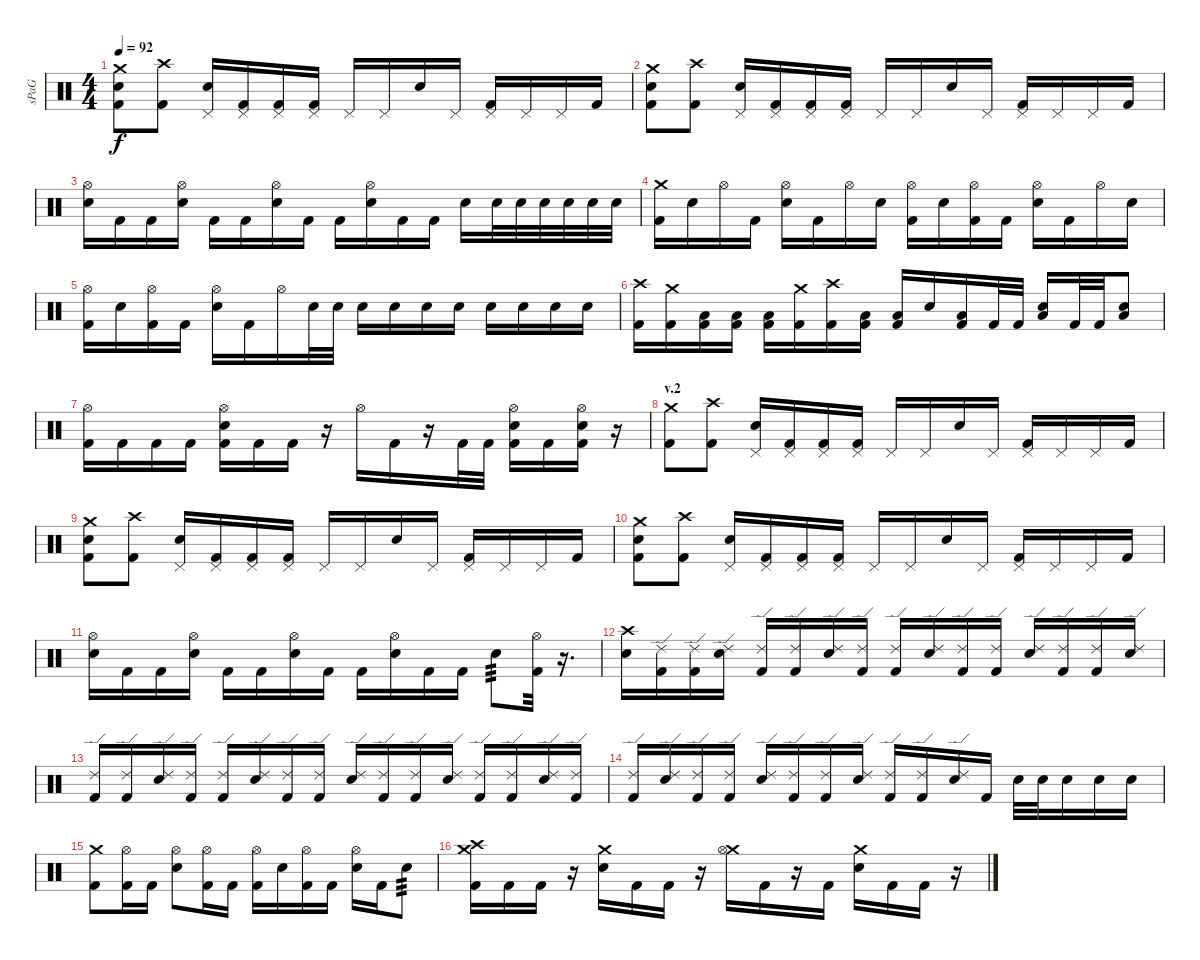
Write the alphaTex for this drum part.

\track ("sPaG" "sPaG") {instrument percussion}
\staff {score}
\articulation defaults
\ts (4 4)
\tempo 92
\clef neutral
\ks c
("Crash medium (hit)" "Snare (hit) 2" "Kick (hit) 2").8{dy f} ("Crash high (hit)" "Kick (hit) 2").8 ("Pedal Hi-Hat (hit)" "Snare (hit) 2").16 ("Pedal Hi-Hat (hit)" "Kick (hit) 2").16 ("Pedal Hi-Hat (hit)" "Kick (hit) 2").16 ("Pedal Hi-Hat (hit)" "Kick (hit) 2").16 "Pedal Hi-Hat (hit)".16 "Pedal Hi-Hat (hit)".16 "Snare (hit) 2".16 "Pedal Hi-Hat (hit)".16 ("Pedal Hi-Hat (hit)" "Kick (hit) 2").16 "Pedal Hi-Hat (hit)".16 "Pedal Hi-Hat (hit)".16 "Kick (hit) 2".16 |
("Crash medium (hit)" "Snare (hit) 2" "Kick (hit) 2").8 ("Crash high (hit)" "Kick (hit) 2").8 ("Pedal Hi-Hat (hit)" "Snare (hit) 2").16 ("Pedal Hi-Hat (hit)" "Kick (hit) 2").16 ("Pedal Hi-Hat (hit)" "Kick (hit) 2").16 ("Pedal Hi-Hat (hit)" "Kick (hit) 2").16 "Pedal Hi-Hat (hit)".16 "Pedal Hi-Hat (hit)".16 "Snare (hit) 2".16 "Pedal Hi-Hat (hit)".16 ("Pedal Hi-Hat (hit)" "Kick (hit) 2").16 "Pedal Hi-Hat (hit)".16 "Pedal Hi-Hat (hit)".16 "Kick (hit) 2".16 |
("Hi-Hat (open)" "Snare (hit) 2").16 "Kick (hit) 2".16 "Kick (hit) 2".16 ("Hi-Hat (open)" "Snare (hit) 2").16 "Kick (hit) 2".16 "Kick (hit) 2".16 ("Hi-Hat (open)" "Snare (hit) 2").16 "Kick (hit) 2".16 "Kick (hit) 2".16 ("Hi-Hat (open)" "Snare (hit) 2").16 "Kick (hit) 2".16 "Kick (hit) 2".16 "Snare (hit) 2".16 "Snare (hit) 2".32 "Snare (hit) 2".32 "Snare (hit) 2".32 "Snare (hit) 2".32 "Snare (hit) 2".32 "Snare (hit) 2".32 |
("Crash medium (hit)" "Kick (hit) 2").16 "Snare (hit) 2".16 "Hi-Hat (open)".16 "Kick (hit) 2".16 ("Hi-Hat (open)" "Snare (hit) 2").16 "Kick (hit) 2".16 "Hi-Hat (open)".16 "Snare (hit) 2".16 ("Hi-Hat (open)" "Kick (hit) 2").16 "Snare (hit) 2".16 ("Hi-Hat (open)" "Kick (hit) 2").16 "Kick (hit) 2".16 ("Hi-Hat (open)" "Snare (hit) 2").16 "Kick (hit) 2".16 "Hi-Hat (open)".16 "Snare (hit) 2".16 |
("Hi-Hat (open)" "Kick (hit) 2").16 "Snare (hit) 2".16 ("Hi-Hat (open)" "Kick (hit) 2").16 "Kick (hit) 2".16 ("Hi-Hat (open)" "Snare (hit) 2").16 "Kick (hit) 2".16 "Hi-Hat (open)".16 "Snare (hit) 2".32 "Snare (hit) 2".32 "Snare (hit) 2".16 "Snare (hit) 2".16 "Snare (hit) 2".16 "Snare (hit) 2".16 "Snare (hit) 2".16 "Snare (hit) 2".16 "Snare (hit) 2".16 "Snare (hit) 2".16 |
("Crash high (hit)" "Kick (hit) 2").16 ("Crash medium (hit)" "Kick (hit) 2").16 ("Low Tom (hit)" "Kick (hit) 2").16 ("Low Tom (hit)" "Kick (hit) 2").16 ("Low Floor Tom (hit)" "Kick (hit) 2").16 ("Crash medium (hit)" "Kick (hit) 2").16 ("Crash high (hit)" "Kick (hit) 2").16 ("Low Tom (hit)" "Kick (hit) 2").16 ("Low Floor Tom (hit)" "Kick (hit) 2").16 "Snare (hit) 2".16 ("Low Tom (hit)" "Kick (hit) 2").16 "Kick (hit) 2".32 "Kick (hit) 2".32 ("Low Floor Tom (hit)" "Snare (hit) 2").16 "Kick (hit) 2".32 "Kick (hit) 2".32 ("Low Floor Tom (hit)" "Snare (hit) 2").8 |
("Hi-Hat (open)" "Kick (hit) 2").16 "Kick (hit) 2".16 "Kick (hit) 2".16 "Kick (hit) 2".16 ("Hi-Hat (open)" "Snare (hit) 2" "Kick (hit) 2").16 "Kick (hit) 2".16 "Kick (hit) 2".16 r.16 "Hi-Hat (open)".16 "Kick (hit) 2".16 r.16 "Kick (hit) 2".32 "Kick (hit) 2".32 ("Hi-Hat (open)" "Snare (hit) 2" "Kick (hit) 2").16 "Kick (hit) 2".16 ("Hi-Hat (open)" "Snare (hit) 2" "Kick (hit) 2").16 r.16 |
\section ("" "v.2")
("Crash medium (hit)" "Kick (hit) 2").8 ("Crash high (hit)" "Kick (hit) 2").8 ("Pedal Hi-Hat (hit)" "Snare (hit) 2").16 ("Pedal Hi-Hat (hit)" "Kick (hit) 2").16 ("Pedal Hi-Hat (hit)" "Kick (hit) 2").16 ("Pedal Hi-Hat (hit)" "Kick (hit) 2").16 "Pedal Hi-Hat (hit)".16 "Pedal Hi-Hat (hit)".16 "Snare (hit) 2".16 "Pedal Hi-Hat (hit)".16 ("Pedal Hi-Hat (hit)" "Kick (hit) 2").16 "Pedal Hi-Hat (hit)".16 "Pedal Hi-Hat (hit)".16 "Kick (hit) 2".16 |
("Crash medium (hit)" "Snare (hit) 2" "Kick (hit) 2").8 ("Crash high (hit)" "Kick (hit) 2").8 ("Pedal Hi-Hat (hit)" "Snare (hit) 2").16 ("Pedal Hi-Hat (hit)" "Kick (hit) 2").16 ("Pedal Hi-Hat (hit)" "Kick (hit) 2").16 ("Pedal Hi-Hat (hit)" "Kick (hit) 2").16 "Pedal Hi-Hat (hit)".16 "Pedal Hi-Hat (hit)".16 "Snare (hit) 2".16 "Pedal Hi-Hat (hit)".16 ("Pedal Hi-Hat (hit)" "Kick (hit) 2").16 "Pedal Hi-Hat (hit)".16 "Pedal Hi-Hat (hit)".16 "Kick (hit) 2".16 |
("Crash medium (hit)" "Snare (hit) 2" "Kick (hit) 2").8 ("Crash high (hit)" "Kick (hit) 2").8 ("Pedal Hi-Hat (hit)" "Snare (hit) 2").16 ("Pedal Hi-Hat (hit)" "Kick (hit) 2").16 ("Pedal Hi-Hat (hit)" "Kick (hit) 2").16 ("Pedal Hi-Hat (hit)" "Kick (hit) 2").16 "Pedal Hi-Hat (hit)".16 "Pedal Hi-Hat (hit)".16 "Snare (hit) 2".16 "Pedal Hi-Hat (hit)".16 ("Pedal Hi-Hat (hit)" "Kick (hit) 2").16 "Pedal Hi-Hat (hit)".16 "Pedal Hi-Hat (hit)".16 "Kick (hit) 2".16 |
("Hi-Hat (open)" "Snare (hit) 2").16 "Kick (hit) 2".16 "Kick (hit) 2".16 ("Hi-Hat (open)" "Snare (hit) 2").16 "Kick (hit) 2".16 "Kick (hit) 2".16 ("Hi-Hat (open)" "Snare (hit) 2").16 "Kick (hit) 2".16 "Kick (hit) 2".16 ("Hi-Hat (open)" "Snare (hit) 2").16 "Kick (hit) 2".16 "Kick (hit) 2".16 "Snare (hit) 2".8{tp 3} ("Hi-Hat (open)" "Kick (hit) 2").32 r.16{d} |
("Crash high (hit)" "Snare (hit) 2").16 ("Ride (edge) 2" "Kick (hit) 2").16 ("Ride (edge) 2" "Kick (hit) 2").16 ("Ride (edge) 2" "Snare (hit) 2").16 ("Ride (edge) 2" "Kick (hit) 2").16 ("Ride (edge) 2" "Kick (hit) 2").16 ("Ride (edge) 2" "Snare (hit) 2").16 ("Ride (edge) 2" "Kick (hit) 2").16 ("Ride (edge) 2" "Kick (hit) 2").16 ("Ride (edge) 2" "Snare (hit) 2").16 ("Ride (edge) 2" "Kick (hit) 2").16 ("Ride (edge) 2" "Kick (hit) 2").16 ("Ride (edge) 2" "Snare (hit) 2").16 ("Ride (edge) 2" "Kick (hit) 2").16 ("Ride (edge) 2" "Kick (hit) 2").16 ("Ride (edge) 2" "Snare (hit) 2").16 |
("Ride (edge) 2" "Kick (hit) 2").16 ("Ride (edge) 2" "Kick (hit) 2").16 ("Ride (edge) 2" "Snare (hit) 2").16 ("Ride (edge) 2" "Kick (hit) 2").16 ("Ride (edge) 2" "Kick (hit) 2").16 ("Ride (edge) 2" "Snare (hit) 2").16 ("Ride (edge) 2" "Kick (hit) 2").16 ("Ride (edge) 2" "Kick (hit) 2").16 ("Ride (edge) 2" "Snare (hit) 2").16 ("Ride (edge) 2" "Kick (hit) 2").16 ("Ride (edge) 2" "Kick (hit) 2").16 ("Ride (edge) 2" "Snare (hit) 2").16 ("Ride (edge) 2" "Kick (hit) 2").16 ("Ride (edge) 2" "Kick (hit) 2").16 ("Ride (edge) 2" "Snare (hit) 2").16 ("Ride (edge) 2" "Kick (hit) 2").16 |
("Ride (edge) 2" "Kick (hit) 2").16 ("Ride (edge) 2" "Snare (hit) 2").16 ("Ride (edge) 2" "Kick (hit) 2").16 ("Ride (edge) 2" "Kick (hit) 2").16 ("Ride (edge) 2" "Snare (hit) 2").16 ("Ride (edge) 2" "Kick (hit) 2").16 ("Ride (edge) 2" "Kick (hit) 2").16 ("Ride (edge) 2" "Snare (hit) 2").16 ("Ride (edge) 2" "Kick (hit) 2").16 ("Ride (edge) 2" "Kick (hit) 2").16 ("Ride (edge) 2" "Snare (hit) 2").16 "Kick (hit) 2".16 "Snare (hit) 2".32 "Snare (hit) 2".32 "Snare (hit) 2".16 "Snare (hit) 2".16 "Snare (hit) 2".16 |
("Crash medium (hit)" "Kick (hit) 2").8 ("Hi-Hat (open)" "Kick (hit) 2").16 "Kick (hit) 2".16 ("Hi-Hat (open)" "Snare (hit) 2").8 ("Hi-Hat (open)" "Kick (hit) 2").16 "Kick (hit) 2".16 ("Hi-Hat (open)" "Kick (hit) 2").16 "Snare (hit) 2".16 ("Hi-Hat (open)" "Kick (hit) 2").16 "Kick (hit) 2".16 ("Hi-Hat (open)" "Snare (hit) 2").16 "Kick (hit) 2".16 "Snare (hit) 2".8{tp 3} |
("Crash medium (hit)" "Crash high (hit)" "Kick (hit) 2").16 "Kick (hit) 2".16 "Kick (hit) 2".16 r.16 ("Crash medium (hit)" "Snare (hit) 2").16 "Kick (hit) 2".16 "Kick (hit) 2".16 r.16 ("Crash medium (hit)" "Hi-Hat (open)").16 "Kick (hit) 2".16 r.16 "Kick (hit) 2".16 ("Crash medium (hit)" "Snare (hit) 2").16 "Kick (hit) 2".16 "Kick (hit) 2".16 r.16
